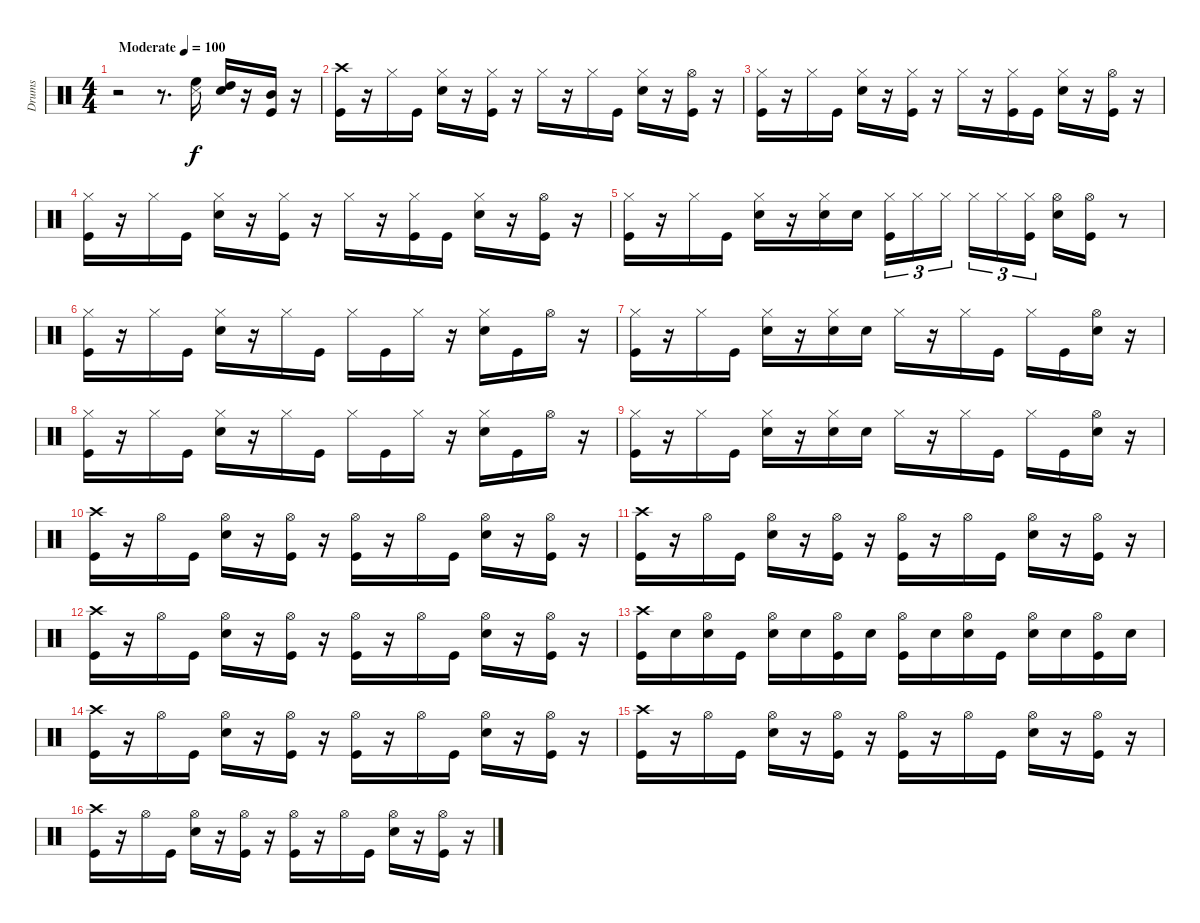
\track ("Drums" "Drums") {instrument percussion}
\staff {score}
\articulation defaults
\ts (4 4)
\tempo (100 "Moderate")
\clef neutral
\ks c
r.2{dy f} r.8{d} ("Snare (side stick) 3" "High Floor Tom (hit)").16 ("Electric Snare (hit)" "High Tom (hit)").16 r.16 ("Kick (hit)" "Mid Tom (hit)").16 r.16 |
("Kick (hit)" "Crash high (hit)").16 r.16 "Hi-Hat (closed)".16 "Kick (hit)".16 ("Electric Snare (hit)" "Hi-Hat (closed)").16 r.16 ("Kick (hit)" "Hi-Hat (closed)").16 r.16 "Hi-Hat (closed)".16 r.16 "Hi-Hat (closed)".16 "Kick (hit)".16 ("Electric Snare (hit)" "Hi-Hat (closed)").16 r.16 ("Kick (hit)" "Hi-Hat (open)").16 r.16 |
("Kick (hit)" "Hi-Hat (closed)").16 r.16 "Hi-Hat (closed)".16 "Kick (hit)".16 ("Electric Snare (hit)" "Hi-Hat (closed)").16 r.16 ("Kick (hit)" "Hi-Hat (closed)").16 r.16 "Hi-Hat (closed)".16 r.16 ("Kick (hit)" "Hi-Hat (closed)").16 "Kick (hit)".16 ("Electric Snare (hit)" "Hi-Hat (closed)").16 r.16 ("Kick (hit)" "Hi-Hat (open)").16 r.16 |
("Kick (hit)" "Hi-Hat (closed)").16 r.16 "Hi-Hat (closed)".16 "Kick (hit)".16 ("Electric Snare (hit)" "Hi-Hat (closed)").16 r.16 ("Kick (hit)" "Hi-Hat (closed)").16 r.16 "Hi-Hat (closed)".16 r.16 ("Kick (hit)" "Hi-Hat (closed)").16 "Kick (hit)".16 ("Electric Snare (hit)" "Hi-Hat (closed)").16 r.16 ("Kick (hit)" "Hi-Hat (open)").16 r.16 |
("Kick (hit)" "Hi-Hat (closed)").16 r.16 "Hi-Hat (closed)".16 "Kick (hit)".16 ("Electric Snare (hit)" "Hi-Hat (closed)").16 r.16 ("Electric Snare (hit)" "Hi-Hat (closed)").16 "Electric Snare (hit)".16 ("Kick (hit)" "Hi-Hat (closed)").16{tu (3 2)} "Hi-Hat (closed)".16{tu (3 2)} "Hi-Hat (closed)".16{tu (3 2)} "Hi-Hat (closed)".16{tu (3 2)} "Hi-Hat (closed)".16{tu (3 2)} ("Kick (hit)" "Hi-Hat (closed)").16{tu (3 2)} ("Electric Snare (hit)" "Hi-Hat (open)").16 ("Kick (hit)" "Hi-Hat (open)").16 r.8 |
("Kick (hit)" "Hi-Hat (closed)").16 r.16 "Hi-Hat (closed)".16 "Kick (hit)".16 ("Electric Snare (hit)" "Hi-Hat (closed)").16 r.16 "Hi-Hat (closed)".16 "Kick (hit)".16 "Hi-Hat (closed)".16 "Kick (hit)".16 "Hi-Hat (closed)".16 r.16 ("Electric Snare (hit)" "Hi-Hat (closed)").16 "Kick (hit)".16 "Hi-Hat (open)".16 r.16 |
("Kick (hit)" "Hi-Hat (closed)").16 r.16 "Hi-Hat (closed)".16 "Kick (hit)".16 ("Electric Snare (hit)" "Hi-Hat (closed)").16 r.16 ("Electric Snare (hit)" "Hi-Hat (closed)").16 "Electric Snare (hit)".16 "Hi-Hat (closed)".16 r.16 "Hi-Hat (closed)".16 "Kick (hit)".16 "Hi-Hat (closed)".16 "Kick (hit)".16 ("Electric Snare (hit)" "Hi-Hat (open)").16 r.16 |
("Kick (hit)" "Hi-Hat (closed)").16 r.16 "Hi-Hat (closed)".16 "Kick (hit)".16 ("Electric Snare (hit)" "Hi-Hat (closed)").16 r.16 "Hi-Hat (closed)".16 "Kick (hit)".16 "Hi-Hat (closed)".16 "Kick (hit)".16 "Hi-Hat (closed)".16 r.16 ("Electric Snare (hit)" "Hi-Hat (closed)").16 "Kick (hit)".16 "Hi-Hat (open)".16 r.16 |
("Kick (hit)" "Hi-Hat (closed)").16 r.16 "Hi-Hat (closed)".16 "Kick (hit)".16 ("Electric Snare (hit)" "Hi-Hat (closed)").16 r.16 ("Electric Snare (hit)" "Hi-Hat (closed)").16 "Electric Snare (hit)".16 "Hi-Hat (closed)".16 r.16 "Hi-Hat (closed)".16 "Kick (hit)".16 "Hi-Hat (closed)".16 "Kick (hit)".16 ("Electric Snare (hit)" "Hi-Hat (open)").16 r.16 |
("Kick (hit)" "Crash high (hit)").16 r.16 "Hi-Hat (open)".16 "Kick (hit)".16 ("Electric Snare (hit)" "Hi-Hat (open)").16 r.16 ("Kick (hit)" "Hi-Hat (open)").16 r.16 ("Kick (hit)" "Hi-Hat (open)").16 r.16 "Hi-Hat (open)".16 "Kick (hit)".16 ("Electric Snare (hit)" "Hi-Hat (open)").16 r.16 ("Kick (hit)" "Hi-Hat (open)").16 r.16 |
("Kick (hit)" "Crash high (hit)").16 r.16 "Hi-Hat (open)".16 "Kick (hit)".16 ("Electric Snare (hit)" "Hi-Hat (open)").16 r.16 ("Kick (hit)" "Hi-Hat (open)").16 r.16 ("Kick (hit)" "Hi-Hat (open)").16 r.16 "Hi-Hat (open)".16 "Kick (hit)".16 ("Electric Snare (hit)" "Hi-Hat (open)").16 r.16 ("Kick (hit)" "Hi-Hat (open)").16 r.16 |
("Kick (hit)" "Crash high (hit)").16 r.16 "Hi-Hat (open)".16 "Kick (hit)".16 ("Electric Snare (hit)" "Hi-Hat (open)").16 r.16 ("Kick (hit)" "Hi-Hat (open)").16 r.16 ("Kick (hit)" "Hi-Hat (open)").16 r.16 "Hi-Hat (open)".16 "Kick (hit)".16 ("Electric Snare (hit)" "Hi-Hat (open)").16 r.16 ("Kick (hit)" "Hi-Hat (open)").16 r.16 |
("Kick (hit)" "Crash high (hit)").16 "Electric Snare (hit)".16 ("Electric Snare (hit)" "Hi-Hat (open)").16 "Kick (hit)".16 ("Electric Snare (hit)" "Hi-Hat (open)").16 "Electric Snare (hit)".16 ("Kick (hit)" "Hi-Hat (open)").16 "Electric Snare (hit)".16 ("Kick (hit)" "Hi-Hat (open)").16 "Electric Snare (hit)".16 ("Electric Snare (hit)" "Hi-Hat (open)").16 "Kick (hit)".16 ("Electric Snare (hit)" "Hi-Hat (open)").16 "Electric Snare (hit)".16 ("Kick (hit)" "Hi-Hat (open)").16 "Electric Snare (hit)".16 |
("Kick (hit)" "Crash high (hit)").16 r.16 "Hi-Hat (open)".16 "Kick (hit)".16 ("Electric Snare (hit)" "Hi-Hat (open)").16 r.16 ("Kick (hit)" "Hi-Hat (open)").16 r.16 ("Kick (hit)" "Hi-Hat (open)").16 r.16 "Hi-Hat (open)".16 "Kick (hit)".16 ("Electric Snare (hit)" "Hi-Hat (open)").16 r.16 ("Kick (hit)" "Hi-Hat (open)").16 r.16 |
("Kick (hit)" "Crash high (hit)").16 r.16 "Hi-Hat (open)".16 "Kick (hit)".16 ("Electric Snare (hit)" "Hi-Hat (open)").16 r.16 ("Kick (hit)" "Hi-Hat (open)").16 r.16 ("Kick (hit)" "Hi-Hat (open)").16 r.16 "Hi-Hat (open)".16 "Kick (hit)".16 ("Electric Snare (hit)" "Hi-Hat (open)").16 r.16 ("Kick (hit)" "Hi-Hat (open)").16 r.16 |
("Kick (hit)" "Crash high (hit)").16 r.16 "Hi-Hat (open)".16 "Kick (hit)".16 ("Electric Snare (hit)" "Hi-Hat (open)").16 r.16 ("Kick (hit)" "Hi-Hat (open)").16 r.16 ("Kick (hit)" "Hi-Hat (open)").16 r.16 "Hi-Hat (open)".16 "Kick (hit)".16 ("Electric Snare (hit)" "Hi-Hat (open)").16 r.16 ("Kick (hit)" "Hi-Hat (open)").16 r.16
